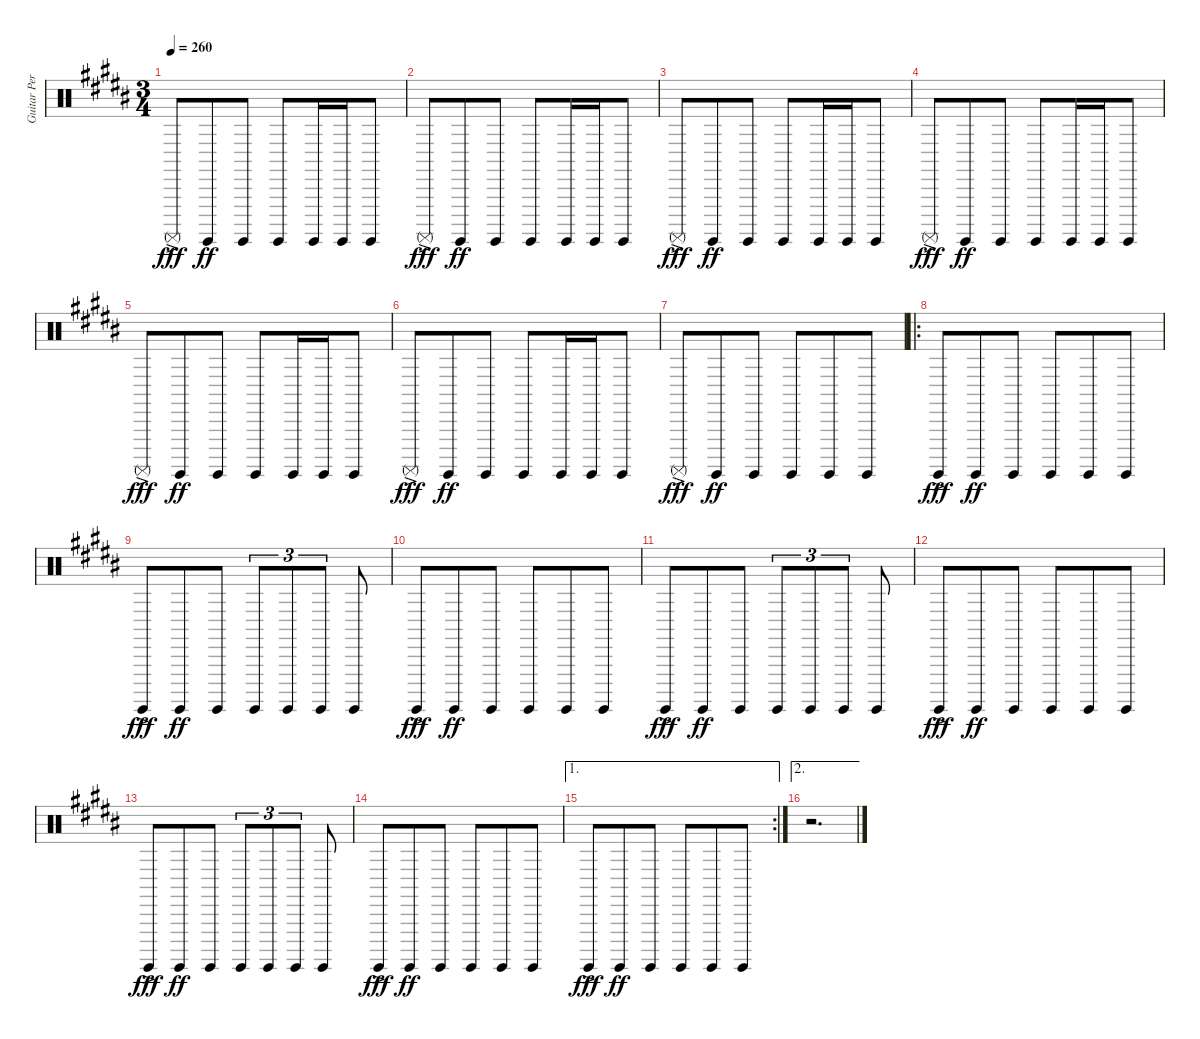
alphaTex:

\track ("Guitar Percussion Noises" "Guitar Per") {instrument percussion}
\staff {score}
\articulation defaults
\ts (3 4)
\tempo 260
\clef neutral
\ks b "Surdo (mute)"{ac}.8{dy fff} "Surdo (hit)".8{dy ff beam merge} "Surdo (hit)".8{beam split} "Surdo (hit)".8{beam merge} "Surdo (hit)".16{beam merge} "Surdo (hit)".16 "Surdo (hit)".8
|
"Surdo (mute)"{ac}.8{dy fff} "Surdo (hit)".8{dy ff beam merge} "Surdo (hit)".8{beam split} "Surdo (hit)".8{beam merge} "Surdo (hit)".16{beam merge} "Surdo (hit)".16 "Surdo (hit)".8 |
"Surdo (mute)"{ac}.8{dy fff} "Surdo (hit)".8{dy ff beam merge} "Surdo (hit)".8{beam split} "Surdo (hit)".8{beam merge} "Surdo (hit)".16{beam merge} "Surdo (hit)".16 "Surdo (hit)".8 |
"Surdo (mute)"{ac}.8{dy fff} "Surdo (hit)".8{dy ff beam merge} "Surdo (hit)".8{beam split} "Surdo (hit)".8{beam merge} "Surdo (hit)".16{beam merge} "Surdo (hit)".16 "Surdo (hit)".8 |
"Surdo (mute)"{ac}.8{dy fff} "Surdo (hit)".8{dy ff beam merge} "Surdo (hit)".8{beam split} "Surdo (hit)".8{beam merge} "Surdo (hit)".16{beam merge} "Surdo (hit)".16 "Surdo (hit)".8 |
"Surdo (mute)"{ac}.8{dy fff} "Surdo (hit)".8{dy ff beam merge} "Surdo (hit)".8{beam split} "Surdo (hit)".8{beam merge} "Surdo (hit)".16{beam merge} "Surdo (hit)".16 "Surdo (hit)".8 |
"Surdo (mute)"{ac}.8{dy fff} "Surdo (hit)".8{dy ff beam merge} "Surdo (hit)".8{beam split} "Surdo (hit)".8{beam merge} "Surdo (hit)".8{beam merge} "Surdo (hit)".8 |
\ro "Surdo (hit)"{ac}.8{dy fff} "Surdo (hit)".8{dy ff beam merge} "Surdo (hit)".8{beam split} "Surdo (hit)".8{beam merge} "Surdo (hit)".8{beam merge} "Surdo (hit)".8
|
"Surdo (hit)"{ac}.8{dy fff} "Surdo (hit)".8{dy ff beam merge} "Surdo (hit)".8{beam split} "Surdo (hit)".8{tu (3 2)} "Surdo (hit)".8{tu (3 2) beam merge} "Surdo (hit)".8{tu (3 2) beam split} "Surdo (hit)".8 |
"Surdo (hit)"{ac}.8{dy fff} "Surdo (hit)".8{dy ff beam merge} "Surdo (hit)".8{beam split} "Surdo (hit)".8{beam merge} "Surdo (hit)".8{beam merge} "Surdo (hit)".8 |
"Surdo (hit)"{ac}.8{dy fff} "Surdo (hit)".8{dy ff beam merge} "Surdo (hit)".8{beam split} "Surdo (hit)".8{tu (3 2)} "Surdo (hit)".8{tu (3 2) beam merge} "Surdo (hit)".8{tu (3 2) beam split} "Surdo (hit)".8 |
"Surdo (hit)"{ac}.8{dy fff} "Surdo (hit)".8{dy ff beam merge} "Surdo (hit)".8{beam split} "Surdo (hit)".8{beam merge} "Surdo (hit)".8{beam merge} "Surdo (hit)".8 |
"Surdo (hit)"{ac}.8{dy fff} "Surdo (hit)".8{dy ff beam merge} "Surdo (hit)".8{beam split} "Surdo (hit)".8{tu (3 2)} "Surdo (hit)".8{tu (3 2) beam merge} "Surdo (hit)".8{tu (3 2) beam split} "Surdo (hit)".8 |
"Surdo (hit)"{ac}.8{dy fff} "Surdo (hit)".8{dy ff beam merge} "Surdo (hit)".8{beam split} "Surdo (hit)".8{beam merge} "Surdo (hit)".8{beam merge} "Surdo (hit)".8 |
\ae 1
\rc 2 "Surdo (hit)"{ac}.8{dy fff} "Surdo (hit)".8{dy ff beam merge} "Surdo (hit)".8{beam split} "Surdo (hit)".8{beam merge} "Surdo (hit)".8{beam merge} "Surdo (hit)".8
|
\ae 2
r.2{d}
